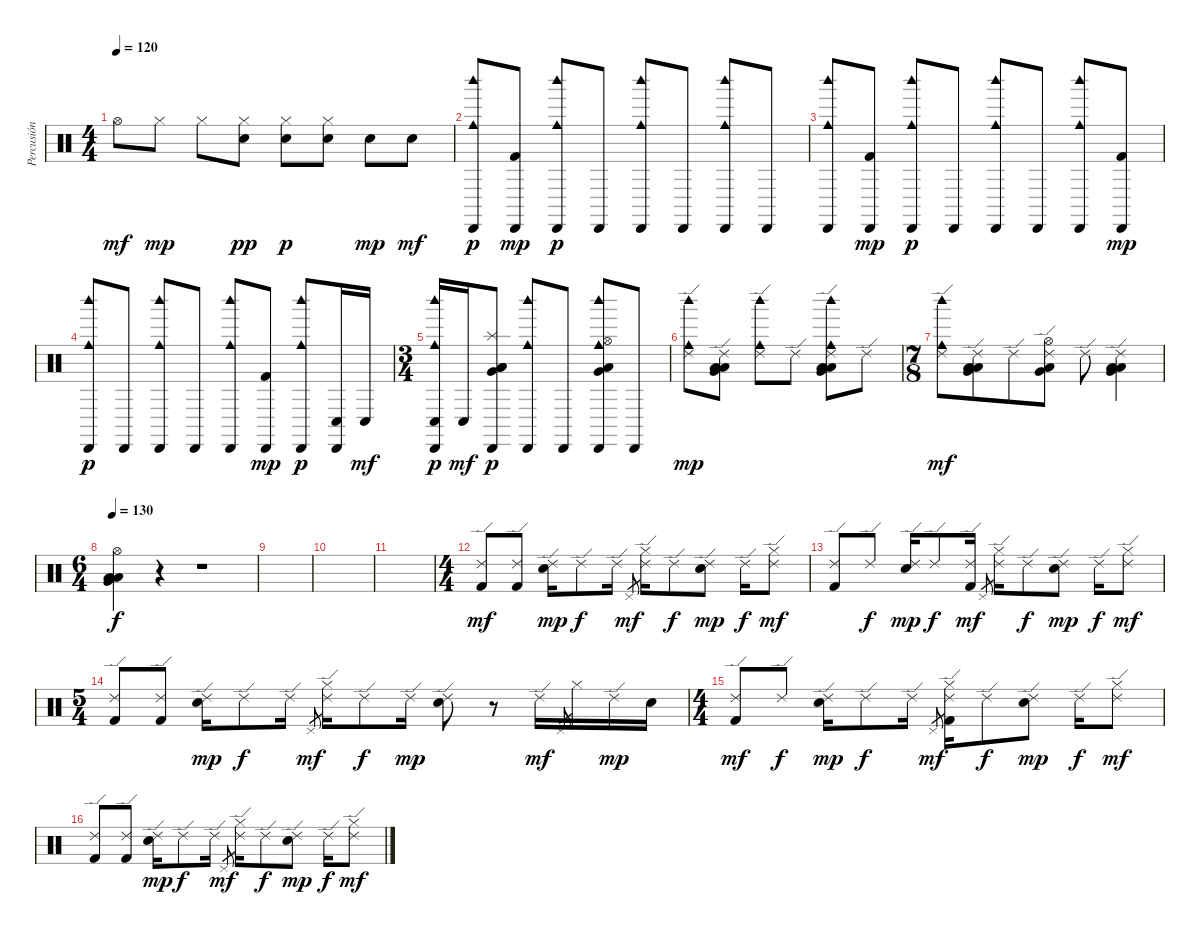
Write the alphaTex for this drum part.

\track ("Percusión" "Percusión") {instrument percussion}
\staff {score}
\articulation defaults
\ts (4 4)
\tempo 120
\clef neutral
\ks c "Hi-Hat (open)".8{dy mf} "Hi-Hat (closed)".8{dy mp} "Hi-Hat (closed)".8
("Hi-Hat (closed)" "Electric Snare (hit)").8{dy pp} ("Hi-Hat (closed)" "Electric Snare (hit)").8{dy p} ("Hi-Hat (closed)" "Electric Snare (hit)").8 "Electric Snare (hit)".8{dy mp} "Electric Snare (hit)".8{dy mf} |
("Woodblock high (hit)" "Cowbell medium (hit)" "Cabasa (hit)").8{dy p} ("Cabasa (hit)" "Kick (hit) 2").8{dy mp} ("Woodblock high (hit)" "Cowbell medium (hit)" "Cabasa (hit)").8{dy p} "Cabasa (hit)".8 ("Woodblock high (hit)" "Cowbell medium (hit)" "Cabasa (hit)").8 "Cabasa (hit)".8 ("Woodblock high (hit)" "Cowbell medium (hit)" "Cabasa (hit)").8 "Cabasa (hit)".8 |
("Woodblock high (hit)" "Cowbell medium (hit)" "Cabasa (hit)").8 ("Cabasa (hit)" "Kick (hit) 2").8{dy mp} ("Woodblock high (hit)" "Cowbell medium (hit)" "Cabasa (hit)").8{dy p} "Cabasa (hit)".8 ("Woodblock high (hit)" "Cowbell medium (hit)" "Cabasa (hit)").8 "Cabasa (hit)".8 ("Woodblock high (hit)" "Cowbell medium (hit)" "Cabasa (hit)").8 ("Cabasa (hit)" "Kick (hit) 2").8{dy mp} |
("Woodblock high (hit)" "Cowbell medium (hit)" "Cabasa (hit)").8{dy p} "Cabasa (hit)".8 ("Woodblock high (hit)" "Cowbell medium (hit)" "Cabasa (hit)").8 "Cabasa (hit)".8 ("Woodblock high (hit)" "Cowbell medium (hit)" "Cabasa (hit)").8 ("Cabasa (hit)" "Kick (hit) 2").8{dy mp} ("Woodblock high (hit)" "Cowbell medium (hit)" "Cabasa (hit)").8{dy p} ("Conga low (hit)" "Cabasa (hit)").16 "Conga low (hit)".16{dy mf} |
\ts (3 4)
("Woodblock high (hit)" "Cowbell medium (hit)" "Conga low (hit)" "Cabasa (hit)").16{dy p} "Conga low (hit)".16{dy mf} ("Splash (hit)" "Low Floor Tom (hit)" "Very Low Tom (hit)" "Cabasa (hit)" "Low Tom (hit)").8{dy p} ("Woodblock high (hit)" "Cowbell medium (hit)" "Cabasa (hit)").8 "Cabasa (hit)".8 ("Woodblock high (hit)" "Cowbell medium (hit)" "Low Floor Tom (hit)" "Very Low Tom (hit)" "Cabasa (hit)" "Hi-Hat (open)").8 "Cabasa (hit)".8 |
("Woodblock high (hit)" "Cowbell medium (hit)" "Ride (edge) 2").8{dy mp} ("Low Floor Tom (hit)" "Very Low Tom (hit)" "Ride (edge) 2" "Low Tom (hit)").8 ("Woodblock high (hit)" "Cowbell medium (hit)" "Ride (edge) 2").8 "Ride (edge) 2".8 ("Woodblock high (hit)" "Cowbell medium (hit)" "Low Floor Tom (hit)" "Very Low Tom (hit)" "Ride (edge) 2" "Low Tom (hit)").8 "Ride (edge) 2".8 |
\ts (7 8)
("Woodblock high (hit)" "Cowbell medium (hit)" "Ride (edge) 2").8{dy mf} ("Low Floor Tom (hit)" "Very Low Tom (hit)" "Ride (edge) 2" "Low Tom (hit)").8 "Ride (edge) 2".8 ("Hi-Hat (open)" "Very Low Tom (hit)" "Ride (edge) 2" "Low Tom (hit)").8 "Ride (edge) 2".8 ("Low Floor Tom (hit)" "Very Low Tom (hit)" "Ride (edge) 2" "Low Tom (hit)").4 |
\ts (6 4)
\tempo 130
("Hi-Hat (open)" "Low Floor Tom (hit)" "Very Low Tom (hit)" "Low Tom (hit)").4{dy f} r.4{volume 0} r.1{volume 13} |
|
|
|
\ts (4 4)
("Ride (edge) 2" "Kick (hit) 2").8{dy mf} ("Ride (edge) 2" "Kick (hit) 2").8 ("Ride (edge) 2" "Electric Snare (hit)").16{dy mp} "Ride (edge) 2".8{dy f} "Ride (edge) 2".16 "Pedal Hi-Hat (hit)".8{gr dy mf} ("Ride (edge) 2" "Hi-Hat (closed)").16 "Ride (edge) 2".8{dy f} ("Ride (edge) 2" "Electric Snare (hit)").8{dy mp} "Ride (edge) 2".16{dy f} ("Ride (edge) 2" "Hi-Hat (closed)").8{dy mf} |
("Ride (edge) 2" "Kick (hit) 2").8 "Ride (edge) 2".8{dy f} ("Ride (edge) 2" "Electric Snare (hit)").16{dy mp} "Ride (edge) 2".8{dy f} ("Ride (edge) 2" "Kick (hit) 2").16{dy mf} "Pedal Hi-Hat (hit)".8{gr} ("Ride (edge) 2" "Hi-Hat (closed)").16 "Ride (edge) 2".8{dy f} ("Ride (edge) 2" "Electric Snare (hit)").8{dy mp} "Ride (edge) 2".16{dy f} ("Ride (edge) 2" "Hi-Hat (closed)").8{dy mf} |
\ts (5 4)
("Ride (edge) 2" "Kick (hit) 2").8 ("Ride (edge) 2" "Kick (hit) 2").8 ("Ride (edge) 2" "Electric Snare (hit)").16{dy mp} "Ride (edge) 2".8{dy f} "Ride (edge) 2".16 "Pedal Hi-Hat (hit)".8{gr dy mf} ("Ride (edge) 2" "Hi-Hat (closed)").16 "Ride (edge) 2".8{dy f} "Ride (edge) 2".16{dy mp} ("Ride (edge) 2" "Electric Snare (hit)").8 r.8 "Ride (edge) 2".16{dy mf} "Pedal Hi-Hat (hit)".8{gr} "Hi-Hat (closed)".16 "Ride (edge) 2".16{dy mp} "Electric Snare (hit)".16 |
\ts (4 4)
("Ride (edge) 2" "Kick (hit) 2").8{dy mf} "Ride (edge) 2".8{dy f} ("Ride (edge) 2" "Electric Snare (hit)").16{dy mp} "Ride (edge) 2".8{dy f} "Ride (edge) 2".16 "Pedal Hi-Hat (hit)".8{gr dy mf} ("Ride (edge) 2" "Hi-Hat (closed)" "Kick (hit) 2").16 "Ride (edge) 2".8{dy f} ("Ride (edge) 2" "Electric Snare (hit)").8{dy mp} "Ride (edge) 2".16{dy f} ("Ride (edge) 2" "Hi-Hat (closed)").8{dy mf} |
("Ride (edge) 2" "Kick (hit) 2").8 ("Ride (edge) 2" "Kick (hit) 2").8 ("Ride (edge) 2" "Electric Snare (hit)").16{dy mp} "Ride (edge) 2".8{dy f} "Ride (edge) 2".16 "Pedal Hi-Hat (hit)".8{gr dy mf} ("Ride (edge) 2" "Hi-Hat (closed)").16 "Ride (edge) 2".8{dy f} ("Ride (edge) 2" "Electric Snare (hit)").8{dy mp} "Ride (edge) 2".16{dy f} ("Ride (edge) 2" "Hi-Hat (closed)").8{dy mf}
